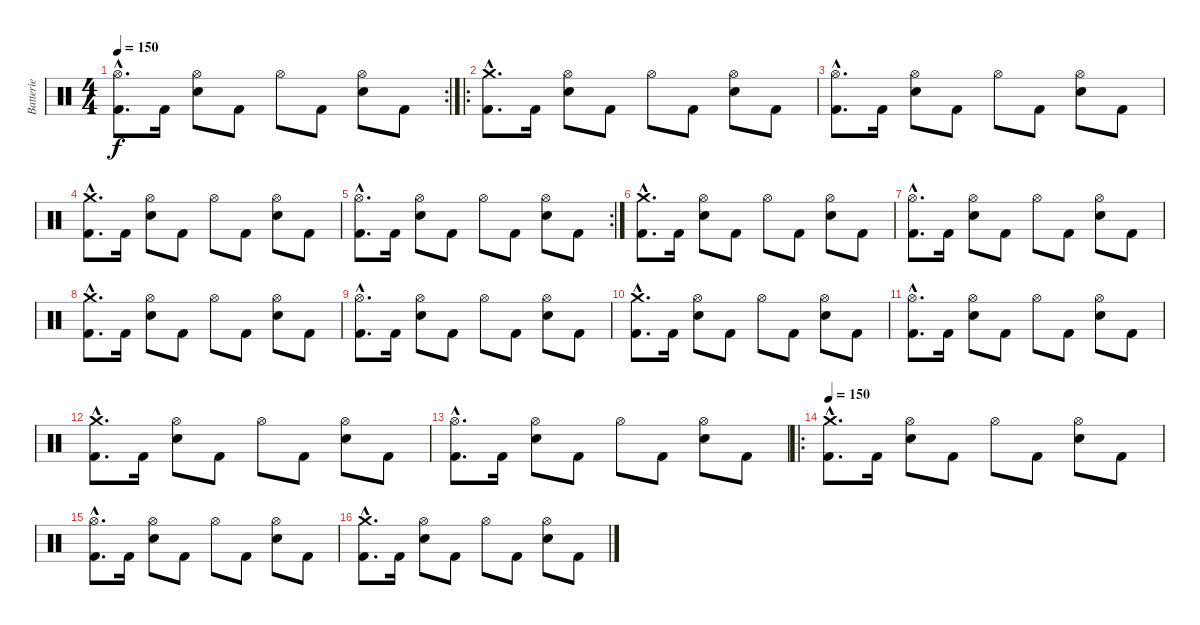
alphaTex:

\track ("Batterie" "Batterie") {instrument percussion}
\staff {score}
\articulation defaults
\rc 2
\ts (4 4)
\tempo 150
\clef neutral
\ks c
("Hi-Hat (open)"{hac} "Kick (hit) 2"{hac}).8{d dy f} "Kick (hit) 2".16 ("Hi-Hat (open)" "Electric Snare (hit)").8 "Kick (hit) 2".8 "Hi-Hat (open)".8 "Kick (hit) 2".8 ("Hi-Hat (open)" "Electric Snare (hit)").8 "Kick (hit) 2".8 |
\ro
("Crash medium (hit)"{hac} "Kick (hit) 2"{hac}).8{d} "Kick (hit) 2".16 ("Hi-Hat (open)" "Electric Snare (hit)").8 "Kick (hit) 2".8 "Hi-Hat (open)".8 "Kick (hit) 2".8 ("Hi-Hat (open)" "Electric Snare (hit)").8 "Kick (hit) 2".8 |
("Hi-Hat (open)"{hac} "Kick (hit) 2"{hac}).8{d} "Kick (hit) 2".16 ("Hi-Hat (open)" "Electric Snare (hit)").8 "Kick (hit) 2".8 "Hi-Hat (open)".8 "Kick (hit) 2".8 ("Hi-Hat (open)" "Electric Snare (hit)").8 "Kick (hit) 2".8 |
("Crash medium (hit)"{hac} "Kick (hit) 2"{hac}).8{d} "Kick (hit) 2".16 ("Hi-Hat (open)" "Electric Snare (hit)").8 "Kick (hit) 2".8 "Hi-Hat (open)".8 "Kick (hit) 2".8 ("Hi-Hat (open)" "Electric Snare (hit)").8 "Kick (hit) 2".8 |
\rc 2
("Hi-Hat (open)"{hac} "Kick (hit) 2"{hac}).8{d} "Kick (hit) 2".16 ("Hi-Hat (open)" "Electric Snare (hit)").8 "Kick (hit) 2".8 "Hi-Hat (open)".8 "Kick (hit) 2".8 ("Hi-Hat (open)" "Electric Snare (hit)").8 "Kick (hit) 2".8 |
("Crash medium (hit)"{hac} "Kick (hit) 2"{hac}).8{d} "Kick (hit) 2".16 ("Hi-Hat (open)" "Electric Snare (hit)").8 "Kick (hit) 2".8 "Hi-Hat (open)".8 "Kick (hit) 2".8 ("Hi-Hat (open)" "Electric Snare (hit)").8 "Kick (hit) 2".8 |
("Hi-Hat (open)"{hac} "Kick (hit) 2"{hac}).8{d} "Kick (hit) 2".16 ("Hi-Hat (open)" "Electric Snare (hit)").8 "Kick (hit) 2".8 "Hi-Hat (open)".8 "Kick (hit) 2".8 ("Hi-Hat (open)" "Electric Snare (hit)").8 "Kick (hit) 2".8 |
("Crash medium (hit)"{hac} "Kick (hit) 2"{hac}).8{d} "Kick (hit) 2".16 ("Hi-Hat (open)" "Electric Snare (hit)").8 "Kick (hit) 2".8 "Hi-Hat (open)".8 "Kick (hit) 2".8 ("Hi-Hat (open)" "Electric Snare (hit)").8 "Kick (hit) 2".8 |
("Hi-Hat (open)"{hac} "Kick (hit) 2"{hac}).8{d} "Kick (hit) 2".16 ("Hi-Hat (open)" "Electric Snare (hit)").8 "Kick (hit) 2".8 "Hi-Hat (open)".8 "Kick (hit) 2".8 ("Hi-Hat (open)" "Electric Snare (hit)").8 "Kick (hit) 2".8 |
("Crash medium (hit)"{hac} "Kick (hit) 2"{hac}).8{d} "Kick (hit) 2".16 ("Hi-Hat (open)" "Electric Snare (hit)").8 "Kick (hit) 2".8 "Hi-Hat (open)".8 "Kick (hit) 2".8 ("Hi-Hat (open)" "Electric Snare (hit)").8 "Kick (hit) 2".8 |
("Hi-Hat (open)"{hac} "Kick (hit) 2"{hac}).8{d} "Kick (hit) 2".16 ("Hi-Hat (open)" "Electric Snare (hit)").8 "Kick (hit) 2".8 "Hi-Hat (open)".8 "Kick (hit) 2".8 ("Hi-Hat (open)" "Electric Snare (hit)").8 "Kick (hit) 2".8 |
("Crash medium (hit)"{hac} "Kick (hit) 2"{hac}).8{d} "Kick (hit) 2".16 ("Hi-Hat (open)" "Electric Snare (hit)").8 "Kick (hit) 2".8 "Hi-Hat (open)".8 "Kick (hit) 2".8 ("Hi-Hat (open)" "Electric Snare (hit)").8 "Kick (hit) 2".8 |
("Hi-Hat (open)"{hac} "Kick (hit) 2"{hac}).8{d} "Kick (hit) 2".16 ("Hi-Hat (open)" "Electric Snare (hit)").8 "Kick (hit) 2".8 "Hi-Hat (open)".8 "Kick (hit) 2".8 ("Hi-Hat (open)" "Electric Snare (hit)").8 "Kick (hit) 2".8 |
\ro
\tempo 150
("Crash medium (hit)"{hac} "Kick (hit) 2"{hac}).8{d} "Kick (hit) 2".16 ("Hi-Hat (open)" "Electric Snare (hit)").8 "Kick (hit) 2".8 "Hi-Hat (open)".8 "Kick (hit) 2".8 ("Hi-Hat (open)" "Electric Snare (hit)").8 "Kick (hit) 2".8 |
("Hi-Hat (open)"{hac} "Kick (hit) 2"{hac}).8{d} "Kick (hit) 2".16 ("Hi-Hat (open)" "Electric Snare (hit)").8 "Kick (hit) 2".8 "Hi-Hat (open)".8 "Kick (hit) 2".8 ("Hi-Hat (open)" "Electric Snare (hit)").8 "Kick (hit) 2".8 |
("Crash medium (hit)"{hac} "Kick (hit) 2"{hac}).8{d} "Kick (hit) 2".16 ("Hi-Hat (open)" "Electric Snare (hit)").8 "Kick (hit) 2".8 "Hi-Hat (open)".8 "Kick (hit) 2".8 ("Hi-Hat (open)" "Electric Snare (hit)").8 "Kick (hit) 2".8
